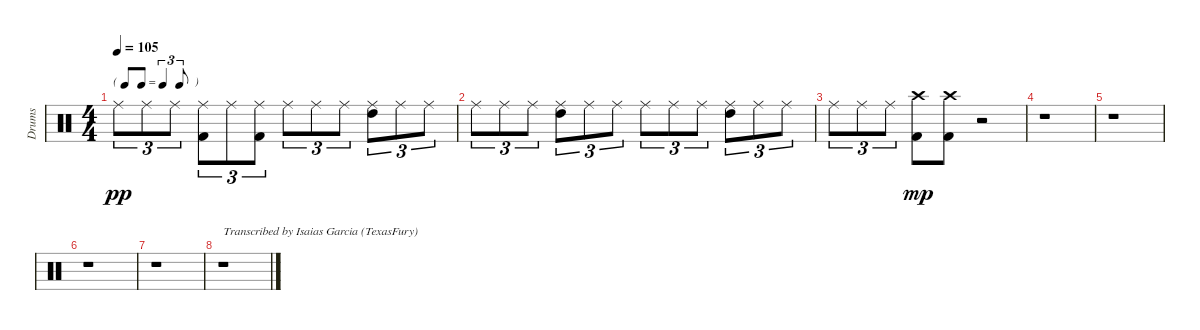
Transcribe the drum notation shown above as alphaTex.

\track ("Drums" "Drums") {instrument percussion}
\staff {score}
\articulation defaults
\ts (4 4)
\tf triplet8th
\tempo 105
\clef neutral
\ks c "Ride (middle)".8{tu (3 2) dy pp} "Ride (middle)".8{tu (3 2)} "Ride (middle)".8{tu (3 2)}
("Ride (middle)" "Kick (hit) 2").8{tu (3 2)} "Ride (middle)".8{tu (3 2)} ("Ride (middle)" "Kick (hit) 2").8{tu (3 2)} "Ride (middle)".8{tu (3 2)} "Ride (middle)".8{tu (3 2)} "Ride (middle)".8{tu (3 2)} ("Ride (middle)" "High Tom (hit)").8{tu (3 2)} "Ride (middle)".8{tu (3 2)} "Ride (middle)".8{tu (3 2)} |
"Ride (middle)".8{tu (3 2)} "Ride (middle)".8{tu (3 2)} "Ride (middle)".8{tu (3 2)} ("Ride (middle)" "High Tom (hit)").8{tu (3 2)} "Ride (middle)".8{tu (3 2)} "Ride (middle)".8{tu (3 2)} "Ride (middle)".8{tu (3 2)} "Ride (middle)".8{tu (3 2)} "Ride (middle)".8{tu (3 2)} ("Ride (middle)" "High Tom (hit)").8{tu (3 2)} "Ride (middle)".8{tu (3 2)} "Ride (middle)".8{tu (3 2)} |
"Ride (middle)".8{tu (3 2)} "Ride (middle)".8{tu (3 2)} "Ride (middle)".8{tu (3 2)} ("Kick (hit) 2" "Crash high (hit)").8{dy mp} ("Kick (hit) 2" "Crash high (hit)").8 r.2 |
r.1 |
r.1 |
r.1 |
r.1 |
r.1{txt "Transcribed by Isaias Garcia (TexasFury)"}
